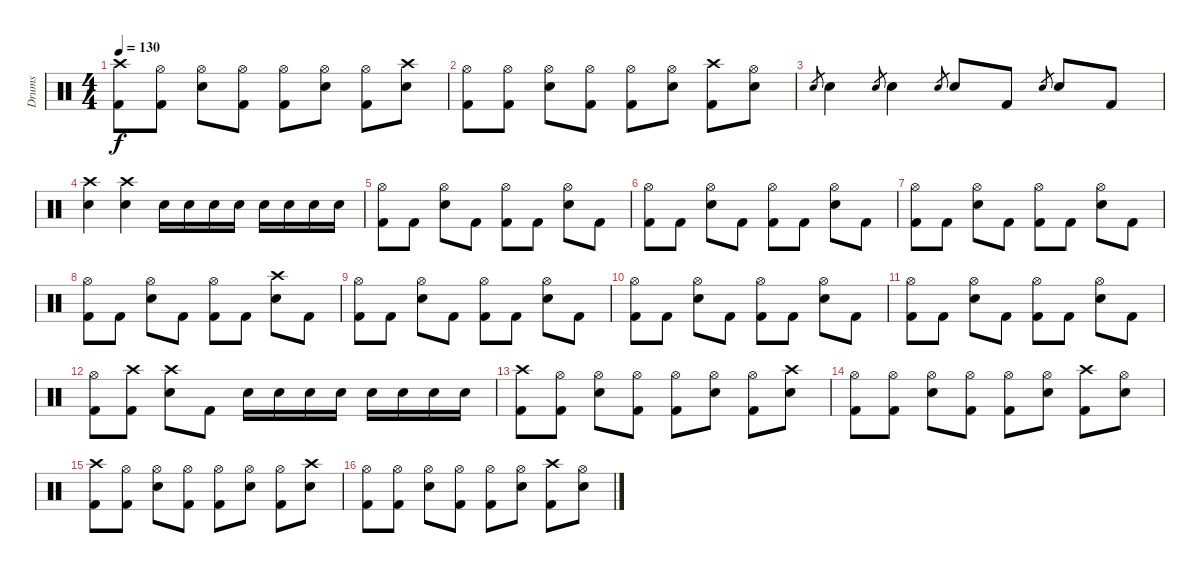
\track ("Drums" "Drums") {instrument percussion}
\staff {score}
\articulation defaults
\ts (4 4)
\tempo 130
\clef neutral
\ks c
("Crash high (hit)" "Kick (hit) 2").8{dy f} ("Hi-Hat (open)" "Kick (hit) 2").8 ("Hi-Hat (open)" "Electric Snare (hit)").8 ("Hi-Hat (open)" "Kick (hit) 2").8 ("Hi-Hat (open)" "Kick (hit) 2").8 ("Hi-Hat (open)" "Electric Snare (hit)").8 ("Hi-Hat (open)" "Kick (hit) 2").8 ("Crash high (hit)" "Electric Snare (hit)").8 |
("Hi-Hat (open)" "Kick (hit) 2").8 ("Hi-Hat (open)" "Kick (hit) 2").8 ("Hi-Hat (open)" "Electric Snare (hit)").8 ("Hi-Hat (open)" "Kick (hit) 2").8 ("Hi-Hat (open)" "Kick (hit) 2").8 ("Hi-Hat (open)" "Electric Snare (hit)").8 ("Crash high (hit)" "Kick (hit) 2").8 ("Hi-Hat (open)" "Electric Snare (hit)").8 |
"Electric Snare (hit)".8{gr} "Electric Snare (hit)".4 "Electric Snare (hit)".8{gr} "Electric Snare (hit)".4 "Electric Snare (hit)".8{gr} "Electric Snare (hit)".8 "Kick (hit) 2".8 "Electric Snare (hit)".8{gr} "Electric Snare (hit)".8 "Kick (hit) 2".8 |
("Crash high (hit)" "Electric Snare (hit)").4 ("Crash high (hit)" "Electric Snare (hit)").4 "Snare (hit) 2".16 "Snare (hit) 2".16 "Snare (hit) 2".16 "Snare (hit) 2".16 "Snare (hit) 2".16 "Snare (hit) 2".16 "Snare (hit) 2".16 "Snare (hit) 2".16 |
("Hi-Hat (open)" "Kick (hit) 2").8 "Kick (hit) 2".8 ("Hi-Hat (open)" "Electric Snare (hit)").8 "Kick (hit) 2".8 ("Hi-Hat (open)" "Kick (hit) 2").8 "Kick (hit) 2".8 ("Hi-Hat (open)" "Electric Snare (hit)").8 "Kick (hit) 2".8 |
("Hi-Hat (open)" "Kick (hit) 2").8 "Kick (hit) 2".8 ("Hi-Hat (open)" "Electric Snare (hit)").8 "Kick (hit) 2".8 ("Hi-Hat (open)" "Kick (hit) 2").8 "Kick (hit) 2".8 ("Hi-Hat (open)" "Electric Snare (hit)").8 "Kick (hit) 2".8 |
("Hi-Hat (open)" "Kick (hit) 2").8 "Kick (hit) 2".8 ("Hi-Hat (open)" "Electric Snare (hit)").8 "Kick (hit) 2".8 ("Hi-Hat (open)" "Kick (hit) 2").8 "Kick (hit) 2".8 ("Hi-Hat (open)" "Electric Snare (hit)").8 "Kick (hit) 2".8 |
("Hi-Hat (open)" "Kick (hit) 2").8 "Kick (hit) 2".8 ("Hi-Hat (open)" "Electric Snare (hit)").8 "Kick (hit) 2".8 ("Hi-Hat (open)" "Kick (hit) 2").8 "Kick (hit) 2".8 ("Crash high (hit)" "Electric Snare (hit)").8 "Kick (hit) 2".8 |
("Hi-Hat (open)" "Kick (hit) 2").8 "Kick (hit) 2".8 ("Hi-Hat (open)" "Electric Snare (hit)").8 "Kick (hit) 2".8 ("Hi-Hat (open)" "Kick (hit) 2").8 "Kick (hit) 2".8 ("Hi-Hat (open)" "Electric Snare (hit)").8 "Kick (hit) 2".8 |
("Hi-Hat (open)" "Kick (hit) 2").8 "Kick (hit) 2".8 ("Hi-Hat (open)" "Electric Snare (hit)").8 "Kick (hit) 2".8 ("Hi-Hat (open)" "Kick (hit) 2").8 "Kick (hit) 2".8 ("Hi-Hat (open)" "Electric Snare (hit)").8 "Kick (hit) 2".8 |
("Hi-Hat (open)" "Kick (hit) 2").8 "Kick (hit) 2".8 ("Hi-Hat (open)" "Electric Snare (hit)").8 "Kick (hit) 2".8 ("Hi-Hat (open)" "Kick (hit) 2").8 "Kick (hit) 2".8 ("Hi-Hat (open)" "Electric Snare (hit)").8 "Kick (hit) 2".8 |
("Hi-Hat (open)" "Kick (hit) 2").8 ("Crash high (hit)" "Kick (hit) 2").8 ("Crash high (hit)" "Electric Snare (hit)").8 "Kick (hit) 2".8 "Snare (hit) 2".16 "Snare (hit) 2".16 "Snare (hit) 2".16 "Snare (hit) 2".16 "Snare (hit) 2".16 "Snare (hit) 2".16 "Snare (hit) 2".16 "Snare (hit) 2".16 |
("Crash high (hit)" "Kick (hit) 2").8 ("Hi-Hat (open)" "Kick (hit) 2").8 ("Hi-Hat (open)" "Electric Snare (hit)").8 ("Hi-Hat (open)" "Kick (hit) 2").8 ("Hi-Hat (open)" "Kick (hit) 2").8 ("Hi-Hat (open)" "Electric Snare (hit)").8 ("Hi-Hat (open)" "Kick (hit) 2").8 ("Crash high (hit)" "Electric Snare (hit)").8 |
("Hi-Hat (open)" "Kick (hit) 2").8 ("Hi-Hat (open)" "Kick (hit) 2").8 ("Hi-Hat (open)" "Electric Snare (hit)").8 ("Hi-Hat (open)" "Kick (hit) 2").8 ("Hi-Hat (open)" "Kick (hit) 2").8 ("Hi-Hat (open)" "Electric Snare (hit)").8 ("Crash high (hit)" "Kick (hit) 2").8 ("Hi-Hat (open)" "Electric Snare (hit)").8 |
("Crash high (hit)" "Kick (hit) 2").8 ("Hi-Hat (open)" "Kick (hit) 2").8 ("Hi-Hat (open)" "Electric Snare (hit)").8 ("Hi-Hat (open)" "Kick (hit) 2").8 ("Hi-Hat (open)" "Kick (hit) 2").8 ("Hi-Hat (open)" "Electric Snare (hit)").8 ("Hi-Hat (open)" "Kick (hit) 2").8 ("Crash high (hit)" "Electric Snare (hit)").8 |
("Hi-Hat (open)" "Kick (hit) 2").8 ("Hi-Hat (open)" "Kick (hit) 2").8 ("Hi-Hat (open)" "Electric Snare (hit)").8 ("Hi-Hat (open)" "Kick (hit) 2").8 ("Hi-Hat (open)" "Kick (hit) 2").8 ("Hi-Hat (open)" "Electric Snare (hit)").8 ("Crash high (hit)" "Kick (hit) 2").8 ("Hi-Hat (open)" "Electric Snare (hit)").8
